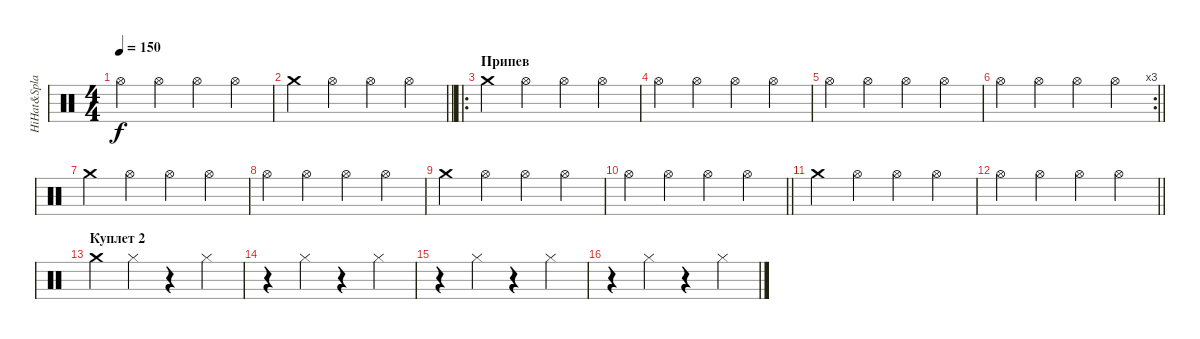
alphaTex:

\track ("HiHat&Splash" "HiHat&Spla") {instrument percussion}
\staff {score}
\articulation defaults
\ts (4 4)
\tempo 150
\clef neutral
\ks c "Hi-Hat (open)".4{dy f} "Hi-Hat (open)".4 "Hi-Hat (open)".4 "Hi-Hat (open)".4
|
\barLineRight lightlight "Crash medium (hit)".4 "Hi-Hat (open)".4 "Hi-Hat (open)".4 "Hi-Hat (open)".4
|
\ro
\section ("" "Припев")
"Crash medium (hit)".4 "Hi-Hat (open)".4 "Hi-Hat (open)".4 "Hi-Hat (open)".4 |
"Hi-Hat (open)".4 "Hi-Hat (open)".4 "Hi-Hat (open)".4 "Hi-Hat (open)".4 |
"Hi-Hat (open)".4 "Hi-Hat (open)".4 "Hi-Hat (open)".4 "Hi-Hat (open)".4 |
\rc 3
\barLineRight lightlight "Hi-Hat (open)".4 "Hi-Hat (open)".4 "Hi-Hat (open)".4 "Hi-Hat (open)".4
|
"Crash medium (hit)".4 "Hi-Hat (open)".4 "Hi-Hat (open)".4 "Hi-Hat (open)".4 |
"Hi-Hat (open)".4 "Hi-Hat (open)".4 "Hi-Hat (open)".4 "Hi-Hat (open)".4 |
"Crash medium (hit)".4 "Hi-Hat (open)".4 "Hi-Hat (open)".4 "Hi-Hat (open)".4 |
\barLineRight lightlight "Hi-Hat (open)".4 "Hi-Hat (open)".4 "Hi-Hat (open)".4 "Hi-Hat (open)".4
|
"Crash medium (hit)".4 "Hi-Hat (open)".4 "Hi-Hat (open)".4 "Hi-Hat (open)".4 |
\barLineRight lightlight "Hi-Hat (open)".4 "Hi-Hat (open)".4 "Hi-Hat (open)".4 "Hi-Hat (open)".4
|
\section ("" "Куплет 2")
"Crash medium (hit)".4 "Hi-Hat (closed)".4 r.4 "Hi-Hat (closed)".4 |
r.4 "Hi-Hat (closed)".4 r.4 "Hi-Hat (closed)".4 |
r.4 "Hi-Hat (closed)".4 r.4 "Hi-Hat (closed)".4 |
r.4 "Hi-Hat (closed)".4 r.4 "Hi-Hat (closed)".4
